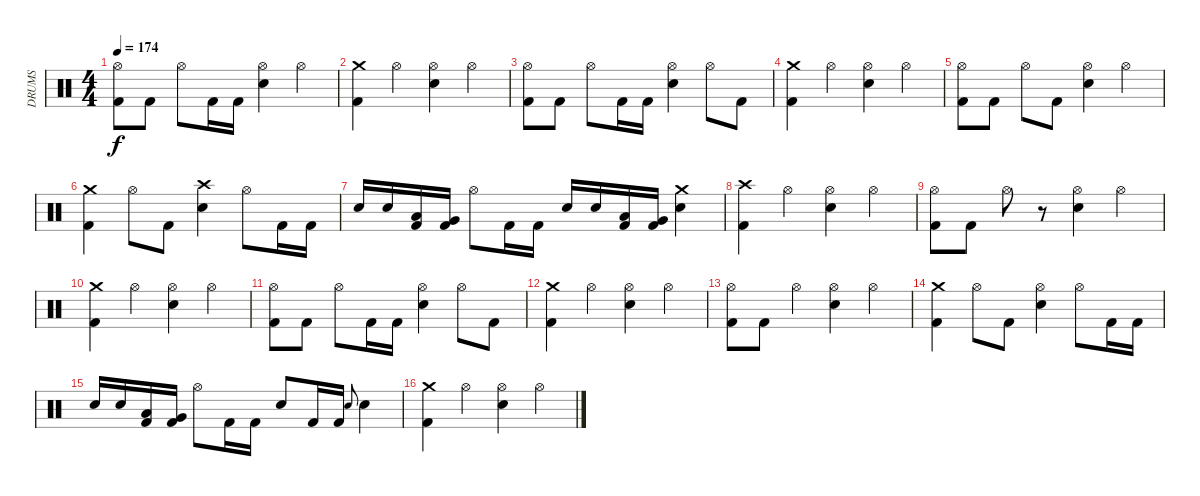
\track ("DRUMS" "DRUMS") {instrument percussion}
\staff {score}
\articulation defaults
\ts (4 4)
\tempo 174
\clef neutral
\ks c
("Hi-Hat (open)" "Kick (hit) 2").8{dy f} "Kick (hit) 2".8 "Hi-Hat (open)".8 "Kick (hit) 2".16 "Kick (hit) 2".16 ("Hi-Hat (open)" "Snare (hit) 2").4 "Hi-Hat (open)".4 |
("Crash medium (hit)" "Kick (hit) 2").4 "Hi-Hat (open)".4 ("Hi-Hat (open)" "Snare (hit) 2").4 "Hi-Hat (open)".4 |
("Hi-Hat (open)" "Kick (hit) 2").8 "Kick (hit) 2".8 "Hi-Hat (open)".8 "Kick (hit) 2".16 "Kick (hit) 2".16 ("Hi-Hat (open)" "Snare (hit) 2").4 "Hi-Hat (open)".8 "Kick (hit) 2".8 |
("Crash medium (hit)" "Kick (hit) 2").4 "Hi-Hat (open)".4 ("Hi-Hat (open)" "Snare (hit) 2").4 "Hi-Hat (open)".4 |
("Hi-Hat (open)" "Kick (hit) 2").8 "Kick (hit) 2".8 "Hi-Hat (open)".8 "Kick (hit) 2".8 ("Hi-Hat (open)" "Snare (hit) 2").4 "Hi-Hat (open)".4 |
("Crash medium (hit)" "Kick (hit) 2").4 "Hi-Hat (open)".8 "Kick (hit) 2".8 ("Crash high (hit)" "Snare (hit) 2").4 "Hi-Hat (open)".8 "Kick (hit) 2".16 "Kick (hit) 2".16 |
"Snare (hit) 2".16 "Snare (hit) 2".16 ("Low Tom (hit)" "Kick (hit) 2").16 ("Very Low Tom (hit)" "Kick (hit) 2").16 "Hi-Hat (open)".8 "Kick (hit) 2".16 "Kick (hit) 2".16 "Snare (hit) 2".16 "Snare (hit) 2".16 ("Low Tom (hit)" "Kick (hit) 2").16 ("Very Low Tom (hit)" "Kick (hit) 2").16 ("Crash medium (hit)" "Snare (hit) 2").4 |
("Crash high (hit)" "Kick (hit) 2").4 "Hi-Hat (open)".4 ("Hi-Hat (open)" "Snare (hit) 2").4 "Hi-Hat (open)".4 |
("Hi-Hat (open)" "Kick (hit) 2").8 "Kick (hit) 2".8 "Hi-Hat (open)".8 r.8 ("Hi-Hat (open)" "Snare (hit) 2").4 "Hi-Hat (open)".4 |
("Crash medium (hit)" "Kick (hit) 2").4 "Hi-Hat (open)".4 ("Hi-Hat (open)" "Snare (hit) 2").4 "Hi-Hat (open)".4 |
("Hi-Hat (open)" "Kick (hit) 2").8 "Kick (hit) 2".8 "Hi-Hat (open)".8 "Kick (hit) 2".16 "Kick (hit) 2".16 ("Hi-Hat (open)" "Snare (hit) 2").4 "Hi-Hat (open)".8 "Kick (hit) 2".8 |
("Crash medium (hit)" "Kick (hit) 2").4 "Hi-Hat (open)".4 ("Hi-Hat (open)" "Snare (hit) 2").4 "Hi-Hat (open)".4 |
("Hi-Hat (open)" "Kick (hit) 2").8 "Kick (hit) 2".8 "Hi-Hat (open)".4 ("Hi-Hat (open)" "Snare (hit) 2").4 "Hi-Hat (open)".4 |
("Crash medium (hit)" "Kick (hit) 2").4 "Hi-Hat (open)".8 "Kick (hit) 2".8 ("Hi-Hat (open)" "Snare (hit) 2").4 "Hi-Hat (open)".8 "Kick (hit) 2".16 "Kick (hit) 2".16 |
"Snare (hit) 2".16 "Snare (hit) 2".16 ("Low Tom (hit)" "Kick (hit) 2").16 ("Very Low Tom (hit)" "Kick (hit) 2").16 "Hi-Hat (open)".8 "Kick (hit) 2".16 "Kick (hit) 2".16 "Snare (hit) 2".8 "Kick (hit) 2".16 "Kick (hit) 2".16 "Snare (hit) 2".8{gr onbeat} "Snare (hit) 2".4 |
("Crash medium (hit)" "Kick (hit) 2").4 "Hi-Hat (open)".4 ("Hi-Hat (open)" "Snare (hit) 2").4 "Hi-Hat (open)".4
